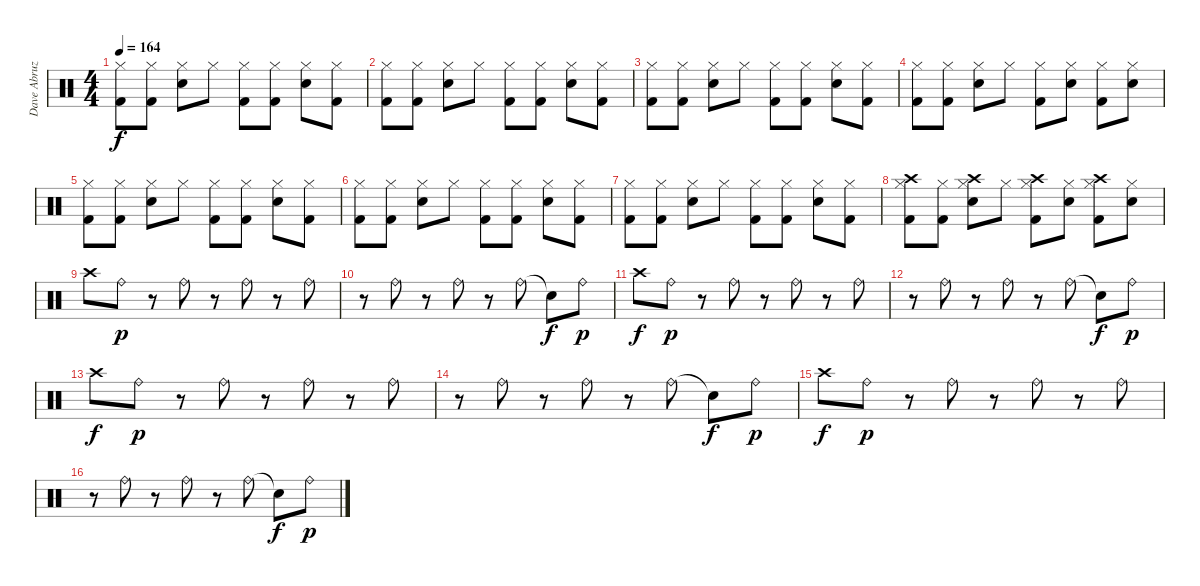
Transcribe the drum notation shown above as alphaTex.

\track ("Dave Abruzzese" "Dave Abruz") {instrument percussion}
\staff {score}
\articulation defaults
\ts (4 4)
\tempo 164
\clef neutral
\ks c
("Kick (hit) 2" "Hi-Hat (closed)").8{dy f} ("Kick (hit) 2" "Hi-Hat (closed)").8 ("Snare (hit) 2" "Hi-Hat (closed)").8 "Hi-Hat (closed)".8 ("Kick (hit) 2" "Hi-Hat (closed)").8 ("Kick (hit) 2" "Hi-Hat (closed)").8 ("Snare (hit) 2" "Hi-Hat (closed)").8 ("Kick (hit) 2" "Hi-Hat (closed)").8 |
("Kick (hit) 2" "Hi-Hat (closed)").8 ("Kick (hit) 2" "Hi-Hat (closed)").8 ("Snare (hit) 2" "Hi-Hat (closed)").8 "Hi-Hat (closed)".8 ("Kick (hit) 2" "Hi-Hat (closed)").8 ("Kick (hit) 2" "Hi-Hat (closed)").8 ("Snare (hit) 2" "Hi-Hat (closed)").8 ("Kick (hit) 2" "Hi-Hat (closed)").8 |
("Kick (hit) 2" "Hi-Hat (closed)").8 ("Kick (hit) 2" "Hi-Hat (closed)").8 ("Snare (hit) 2" "Hi-Hat (closed)").8 "Hi-Hat (closed)".8 ("Kick (hit) 2" "Hi-Hat (closed)").8 ("Kick (hit) 2" "Hi-Hat (closed)").8 ("Snare (hit) 2" "Hi-Hat (closed)").8 ("Kick (hit) 2" "Hi-Hat (closed)").8 |
("Kick (hit) 2" "Hi-Hat (closed)").8 ("Kick (hit) 2" "Hi-Hat (closed)").8 ("Snare (hit) 2" "Hi-Hat (closed)").8 "Hi-Hat (closed)".8 ("Kick (hit) 2" "Hi-Hat (closed)").8 ("Snare (hit) 2" "Hi-Hat (closed)").8 ("Kick (hit) 2" "Hi-Hat (closed)").8 ("Snare (hit) 2" "Hi-Hat (closed)").8 |
("Kick (hit) 2" "Hi-Hat (closed)").8 ("Kick (hit) 2" "Hi-Hat (closed)").8 ("Snare (hit) 2" "Hi-Hat (closed)").8 "Hi-Hat (closed)".8 ("Kick (hit) 2" "Hi-Hat (closed)").8 ("Kick (hit) 2" "Hi-Hat (closed)").8 ("Snare (hit) 2" "Hi-Hat (closed)").8 ("Kick (hit) 2" "Hi-Hat (closed)").8 |
("Kick (hit) 2" "Hi-Hat (closed)").8 ("Kick (hit) 2" "Hi-Hat (closed)").8 ("Snare (hit) 2" "Hi-Hat (closed)").8 "Hi-Hat (closed)".8 ("Kick (hit) 2" "Hi-Hat (closed)").8 ("Kick (hit) 2" "Hi-Hat (closed)").8 ("Snare (hit) 2" "Hi-Hat (closed)").8 ("Kick (hit) 2" "Hi-Hat (closed)").8 |
("Kick (hit) 2" "Hi-Hat (closed)").8 ("Kick (hit) 2" "Hi-Hat (closed)").8 ("Snare (hit) 2" "Hi-Hat (closed)").8 "Hi-Hat (closed)".8 ("Kick (hit) 2" "Hi-Hat (closed)").8 ("Kick (hit) 2" "Hi-Hat (closed)").8 ("Snare (hit) 2" "Hi-Hat (closed)").8 ("Kick (hit) 2" "Hi-Hat (closed)").8 |
("Crash high (hit)" "Kick (hit) 2" "Hi-Hat (closed)").8 ("Kick (hit) 2" "Hi-Hat (closed)").8 ("Crash high (hit)" "Snare (hit) 2" "Hi-Hat (closed)").8 "Hi-Hat (closed)".8 ("Crash high (hit)" "Kick (hit) 2" "Hi-Hat (closed)").8 ("Snare (hit) 2" "Hi-Hat (closed)").8 ("Crash high (hit)" "Kick (hit) 2" "Hi-Hat (closed)").8 ("Snare (hit) 2" "Hi-Hat (closed)").8 |
"Crash high (hit)".8 "Ride (bell)".8{dy p} r.8 "Ride (bell)".8 r.8 "Ride (bell)".8 r.8 "Ride (bell)".8 |
r.8 "Ride (bell)".8 r.8 "Ride (bell)".8 r.8 "Ride (bell)".8 "Snare (hit)"{t}.8{dy f} "Ride (bell)".8{dy p} |
"Crash high (hit)".8{dy f} "Ride (bell)".8{dy p} r.8 "Ride (bell)".8 r.8 "Ride (bell)".8 r.8 "Ride (bell)".8 |
r.8 "Ride (bell)".8 r.8 "Ride (bell)".8 r.8 "Ride (bell)".8 "Snare (hit)"{t}.8{dy f} "Ride (bell)".8{dy p} |
"Crash high (hit)".8{dy f} "Ride (bell)".8{dy p} r.8 "Ride (bell)".8 r.8 "Ride (bell)".8 r.8 "Ride (bell)".8 |
r.8 "Ride (bell)".8 r.8 "Ride (bell)".8 r.8 "Ride (bell)".8 "Snare (hit)"{t}.8{dy f} "Ride (bell)".8{dy p} |
"Crash high (hit)".8{dy f} "Ride (bell)".8{dy p} r.8 "Ride (bell)".8 r.8 "Ride (bell)".8 r.8 "Ride (bell)".8 |
r.8 "Ride (bell)".8 r.8 "Ride (bell)".8 r.8 "Ride (bell)".8 "Snare (hit)"{t}.8{dy f} "Ride (bell)".8{dy p}
